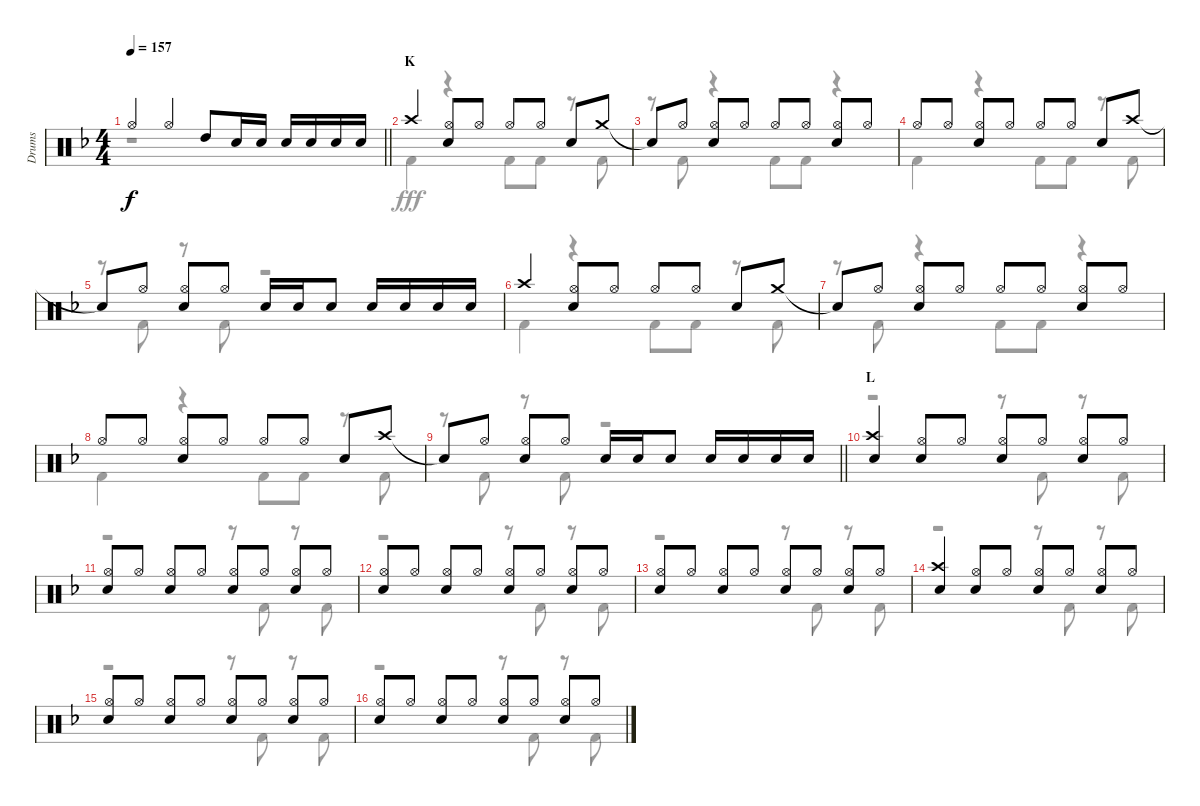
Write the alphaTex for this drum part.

\track ("Drums" "Drums") {instrument percussion}
\staff {score}
\articulation defaults
\voice
\ts (4 4)
\tempo 157
\clef neutral
\barLineRight lightlight
\ks f "Hi-Hat (open)".4{dy f} "Hi-Hat (open)".4 "High Tom (hit)".8 "Snare (hit) 2".16 "Snare (hit) 2".16 "Snare (hit) 2".16 "Snare (hit) 2".16 "Snare (hit) 2".16 "Snare (hit) 2".16
|
\section ("" "K")
"Crash high (hit)".4 ("Hi-Hat (open)" "Snare (hit) 2").8 "Hi-Hat (open)".8 "Hi-Hat (open)".8 "Hi-Hat (open)".8 "Snare (hit) 2".8 "Crash medium (hit)".8 |
"Snare (hit)"{t}.8 "Hi-Hat (open)".8 ("Hi-Hat (open)" "Snare (hit) 2").8 "Hi-Hat (open)".8 "Hi-Hat (open)".8 "Hi-Hat (open)".8 ("Hi-Hat (open)" "Snare (hit) 2").8 "Hi-Hat (open)".8 |
"Hi-Hat (open)".8 "Hi-Hat (open)".8 ("Hi-Hat (open)" "Snare (hit) 2").8 "Hi-Hat (open)".8 "Hi-Hat (open)".8 "Hi-Hat (open)".8 "Snare (hit) 2".8 "Crash high (hit)".8 |
"Snare (hit)"{t}.8 "Hi-Hat (open)".8 ("Hi-Hat (open)" "Snare (hit) 2").8 "Hi-Hat (open)".8 "Snare (hit) 2".16 "Snare (hit) 2".16 "Snare (hit) 2".8 "Snare (hit) 2".16 "Snare (hit) 2".16 "Snare (hit) 2".16 "Snare (hit) 2".16 |
"Crash high (hit)".4 ("Hi-Hat (open)" "Snare (hit) 2").8 "Hi-Hat (open)".8 "Hi-Hat (open)".8 "Hi-Hat (open)".8 "Snare (hit) 2".8 "Crash medium (hit)".8 |
"Snare (hit)"{t}.8 "Hi-Hat (open)".8 ("Hi-Hat (open)" "Snare (hit) 2").8 "Hi-Hat (open)".8 "Hi-Hat (open)".8 "Hi-Hat (open)".8 ("Hi-Hat (open)" "Snare (hit) 2").8 "Hi-Hat (open)".8 |
"Hi-Hat (open)".8 "Hi-Hat (open)".8 ("Hi-Hat (open)" "Snare (hit) 2").8 "Hi-Hat (open)".8 "Hi-Hat (open)".8 "Hi-Hat (open)".8 "Snare (hit) 2".8 "Crash high (hit)".8 |
\barLineRight lightlight "Snare (hit)"{t}.8 "Hi-Hat (open)".8
("Hi-Hat (open)" "Snare (hit) 2").8 "Hi-Hat (open)".8 "Snare (hit) 2".16 "Snare (hit) 2".16 "Snare (hit) 2".8 "Snare (hit) 2".16 "Snare (hit) 2".16 "Snare (hit) 2".16 "Snare (hit) 2".16 |
\section ("" "L")
("Crash high (hit)" "Snare (hit) 2").4 ("Hi-Hat (open)" "Snare (hit) 2").8 "Hi-Hat (open)".8 ("Hi-Hat (open)" "Snare (hit) 2").8 "Hi-Hat (open)".8 ("Hi-Hat (open)" "Snare (hit) 2").8 "Hi-Hat (open)".8 |
("Hi-Hat (open)" "Snare (hit) 2").8 "Hi-Hat (open)".8 ("Hi-Hat (open)" "Snare (hit) 2").8 "Hi-Hat (open)".8 ("Hi-Hat (open)" "Snare (hit) 2").8 "Hi-Hat (open)".8 ("Hi-Hat (open)" "Snare (hit) 2").8 "Hi-Hat (open)".8 |
("Hi-Hat (open)" "Snare (hit) 2").8 "Hi-Hat (open)".8 ("Hi-Hat (open)" "Snare (hit) 2").8 "Hi-Hat (open)".8 ("Hi-Hat (open)" "Snare (hit) 2").8 "Hi-Hat (open)".8 ("Hi-Hat (open)" "Snare (hit) 2").8 "Hi-Hat (open)".8 |
("Hi-Hat (open)" "Snare (hit) 2").8 "Hi-Hat (open)".8 ("Hi-Hat (open)" "Snare (hit) 2").8 "Hi-Hat (open)".8 ("Hi-Hat (open)" "Snare (hit) 2").8 "Hi-Hat (open)".8 ("Hi-Hat (open)" "Snare (hit) 2").8 "Hi-Hat (open)".8 |
("Crash high (hit)" "Snare (hit) 2").4 ("Hi-Hat (open)" "Snare (hit) 2").8 "Hi-Hat (open)".8 ("Hi-Hat (open)" "Snare (hit) 2").8 "Hi-Hat (open)".8 ("Hi-Hat (open)" "Snare (hit) 2").8 "Hi-Hat (open)".8 |
("Hi-Hat (open)" "Snare (hit) 2").8 "Hi-Hat (open)".8 ("Hi-Hat (open)" "Snare (hit) 2").8 "Hi-Hat (open)".8 ("Hi-Hat (open)" "Snare (hit) 2").8 "Hi-Hat (open)".8 ("Hi-Hat (open)" "Snare (hit) 2").8 "Hi-Hat (open)".8 |
("Hi-Hat (open)" "Snare (hit) 2").8 "Hi-Hat (open)".8 ("Hi-Hat (open)" "Snare (hit) 2").8 "Hi-Hat (open)".8 ("Hi-Hat (open)" "Snare (hit) 2").8 "Hi-Hat (open)".8 ("Hi-Hat (open)" "Snare (hit) 2").8 "Hi-Hat (open)".8
\voice
\clef neutral
\ottava regular
\simile none
\barLineRight lightlight
\ks f
r.1{dy fff} |
"Kick (hit) 2".4 r.4 "Kick (hit) 2".8 "Kick (hit) 2".8 r.8 "Kick (hit) 2".8 |
r.8 "Kick (hit) 2".8 r.4 "Kick (hit) 2".8 "Kick (hit) 2".8 r.4 |
"Kick (hit) 2".4 r.4 "Kick (hit) 2".8 "Kick (hit) 2".8 r.8 "Kick (hit) 2".8 |
r.8 "Kick (hit) 2".8 r.8 "Kick (hit) 2".8 r.2 |
"Kick (hit) 2".4 r.4 "Kick (hit) 2".8 "Kick (hit) 2".8 r.8 "Kick (hit) 2".8 |
r.8 "Kick (hit) 2".8 r.4 "Kick (hit) 2".8 "Kick (hit) 2".8 r.4 |
"Kick (hit) 2".4 r.4 "Kick (hit) 2".8 "Kick (hit) 2".8 r.8 "Kick (hit) 2".8 |
\barLineRight lightlight
r.8 "Kick (hit) 2".8 r.8 "Kick (hit) 2".8 r.2 |
r.2 r.8 "Kick (hit) 2".8 r.8 "Kick (hit) 2".8 |
r.2 r.8 "Kick (hit) 2".8 r.8 "Kick (hit) 2".8 |
r.2 r.8 "Kick (hit) 2".8 r.8 "Kick (hit) 2".8 |
r.2 r.8 "Kick (hit) 2".8 r.8 "Kick (hit) 2".8 |
r.2 r.8 "Kick (hit) 2".8 r.8 "Kick (hit) 2".8 |
r.2 r.8 "Kick (hit) 2".8 r.8 "Kick (hit) 2".8 |
r.2 r.8 "Kick (hit) 2".8 r.8 "Kick (hit) 2".8
